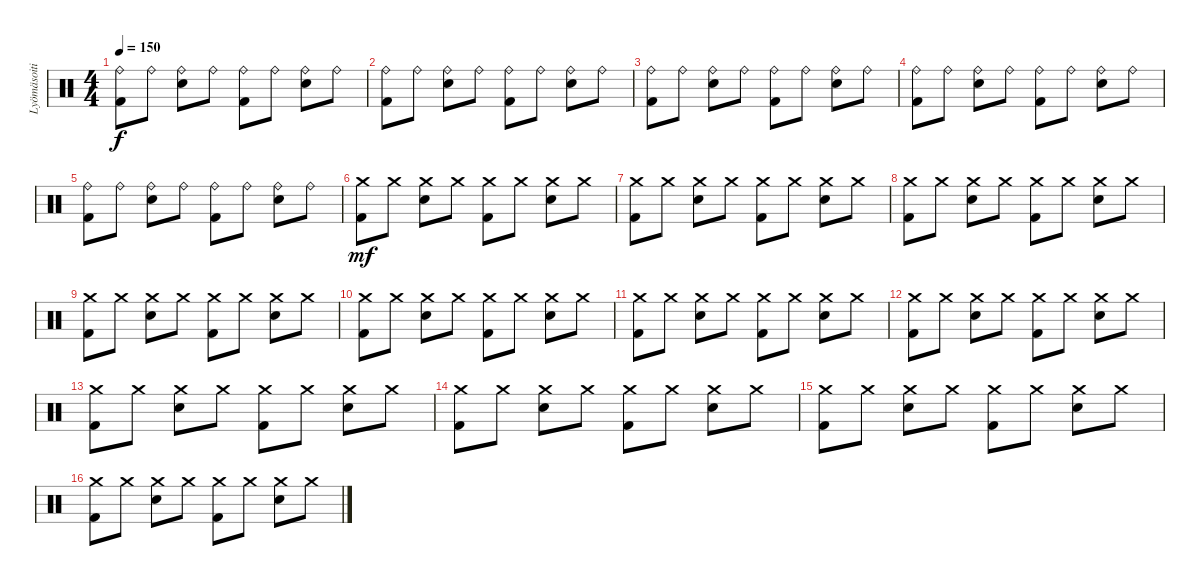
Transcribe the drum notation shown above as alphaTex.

\track ("Lyömäsoitin" "Lyömäsoiti") {instrument percussion}
\staff {score}
\articulation defaults
\ts (4 4)
\tempo 150
\clef neutral
\ks c
("Ride (bell)" "Kick (hit) 2").8{dy f} "Ride (bell)".8 ("Ride (bell)" "Electric Snare (hit)").8 "Ride (bell)".8 ("Ride (bell)" "Kick (hit) 2").8 "Ride (bell)".8 ("Ride (bell)" "Electric Snare (hit)").8 "Ride (bell)".8 |
("Ride (bell)" "Kick (hit) 2").8 "Ride (bell)".8 ("Ride (bell)" "Electric Snare (hit)").8 "Ride (bell)".8 ("Ride (bell)" "Kick (hit) 2").8 "Ride (bell)".8 ("Ride (bell)" "Electric Snare (hit)").8 "Ride (bell)".8 |
("Ride (bell)" "Kick (hit) 2").8 "Ride (bell)".8 ("Ride (bell)" "Electric Snare (hit)").8 "Ride (bell)".8 ("Ride (bell)" "Kick (hit) 2").8 "Ride (bell)".8 ("Ride (bell)" "Electric Snare (hit)").8 "Ride (bell)".8 |
("Ride (bell)" "Kick (hit) 2").8 "Ride (bell)".8 ("Ride (bell)" "Electric Snare (hit)").8 "Ride (bell)".8 ("Ride (bell)" "Kick (hit) 2").8 "Ride (bell)".8 ("Ride (bell)" "Electric Snare (hit)").8 "Ride (bell)".8 |
("Ride (bell)" "Kick (hit) 2").8 "Ride (bell)".8 ("Ride (bell)" "Electric Snare (hit)").8 "Ride (bell)".8 ("Ride (bell)" "Kick (hit) 2").8 "Ride (bell)".8 ("Ride (bell)" "Electric Snare (hit)").8 "Ride (bell)".8 |
("Crash medium (hit)" "Kick (hit) 2").8{dy mf} "Crash medium (hit)".8 ("Crash medium (hit)" "Electric Snare (hit)").8 "Crash medium (hit)".8 ("Crash medium (hit)" "Kick (hit) 2").8 "Crash medium (hit)".8 ("Crash medium (hit)" "Electric Snare (hit)").8 "Crash medium (hit)".8 |
("Crash medium (hit)" "Kick (hit) 2").8 "Crash medium (hit)".8 ("Crash medium (hit)" "Electric Snare (hit)").8 "Crash medium (hit)".8 ("Crash medium (hit)" "Kick (hit) 2").8 "Crash medium (hit)".8 ("Crash medium (hit)" "Electric Snare (hit)").8 "Crash medium (hit)".8 |
("Crash medium (hit)" "Kick (hit) 2").8 "Crash medium (hit)".8 ("Crash medium (hit)" "Electric Snare (hit)").8 "Crash medium (hit)".8 ("Crash medium (hit)" "Kick (hit) 2").8 "Crash medium (hit)".8 ("Crash medium (hit)" "Electric Snare (hit)").8 "Crash medium (hit)".8 |
("Crash medium (hit)" "Kick (hit) 2").8 "Crash medium (hit)".8 ("Crash medium (hit)" "Electric Snare (hit)").8 "Crash medium (hit)".8 ("Crash medium (hit)" "Kick (hit) 2").8 "Crash medium (hit)".8 ("Crash medium (hit)" "Electric Snare (hit)").8 "Crash medium (hit)".8 |
("Crash medium (hit)" "Kick (hit) 2").8 "Crash medium (hit)".8 ("Crash medium (hit)" "Electric Snare (hit)").8 "Crash medium (hit)".8 ("Crash medium (hit)" "Kick (hit) 2").8 "Crash medium (hit)".8 ("Crash medium (hit)" "Electric Snare (hit)").8 "Crash medium (hit)".8 |
("Crash medium (hit)" "Kick (hit) 2").8 "Crash medium (hit)".8 ("Crash medium (hit)" "Electric Snare (hit)").8 "Crash medium (hit)".8 ("Crash medium (hit)" "Kick (hit) 2").8 "Crash medium (hit)".8 ("Crash medium (hit)" "Electric Snare (hit)").8 "Crash medium (hit)".8 |
("Crash medium (hit)" "Kick (hit) 2").8 "Crash medium (hit)".8 ("Crash medium (hit)" "Electric Snare (hit)").8 "Crash medium (hit)".8 ("Crash medium (hit)" "Kick (hit) 2").8 "Crash medium (hit)".8 ("Crash medium (hit)" "Electric Snare (hit)").8 "Crash medium (hit)".8 |
("Crash medium (hit)" "Kick (hit) 2").8 "Crash medium (hit)".8 ("Crash medium (hit)" "Electric Snare (hit)").8 "Crash medium (hit)".8 ("Crash medium (hit)" "Kick (hit) 2").8 "Crash medium (hit)".8 ("Crash medium (hit)" "Electric Snare (hit)").8 "Crash medium (hit)".8 |
("Crash medium (hit)" "Kick (hit) 2").8 "Crash medium (hit)".8 ("Crash medium (hit)" "Electric Snare (hit)").8 "Crash medium (hit)".8 ("Crash medium (hit)" "Kick (hit) 2").8 "Crash medium (hit)".8 ("Crash medium (hit)" "Electric Snare (hit)").8 "Crash medium (hit)".8 |
("Crash medium (hit)" "Kick (hit) 2").8 "Crash medium (hit)".8 ("Crash medium (hit)" "Electric Snare (hit)").8 "Crash medium (hit)".8 ("Crash medium (hit)" "Kick (hit) 2").8 "Crash medium (hit)".8 ("Crash medium (hit)" "Electric Snare (hit)").8 "Crash medium (hit)".8 |
("Crash medium (hit)" "Kick (hit) 2").8 "Crash medium (hit)".8 ("Crash medium (hit)" "Electric Snare (hit)").8 "Crash medium (hit)".8 ("Crash medium (hit)" "Kick (hit) 2").8 "Crash medium (hit)".8 ("Crash medium (hit)" "Electric Snare (hit)").8 "Crash medium (hit)".8
